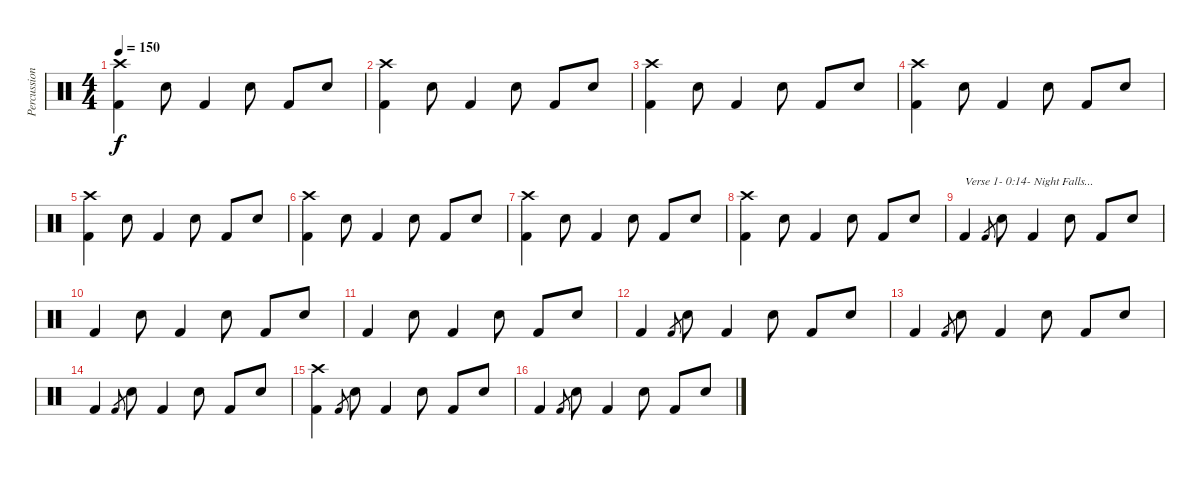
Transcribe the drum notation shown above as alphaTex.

\track ("Percussion" "Percussion") {instrument percussion}
\staff {score}
\articulation defaults
\ts (4 4)
\tempo 150
\clef neutral
\ks c
("Crash high (hit)" "Kick (hit) 2").4{dy f} "Snare (hit) 2".8 "Kick (hit) 2".4 "Snare (hit) 2".8 "Kick (hit) 2".8 "Snare (hit) 2".8 |
("Crash high (hit)" "Kick (hit) 2").4 "Snare (hit) 2".8 "Kick (hit) 2".4 "Snare (hit) 2".8 "Kick (hit) 2".8 "Snare (hit) 2".8 |
("Crash high (hit)" "Kick (hit) 2").4 "Snare (hit) 2".8 "Kick (hit) 2".4 "Snare (hit) 2".8 "Kick (hit) 2".8 "Snare (hit) 2".8 |
("Crash high (hit)" "Kick (hit) 2").4 "Snare (hit) 2".8 "Kick (hit) 2".4 "Snare (hit) 2".8 "Kick (hit) 2".8 "Snare (hit) 2".8 |
("Crash high (hit)" "Kick (hit) 2").4 "Snare (hit) 2".8 "Kick (hit) 2".4 "Snare (hit) 2".8 "Kick (hit) 2".8 "Snare (hit) 2".8 |
("Crash high (hit)" "Kick (hit) 2").4 "Snare (hit) 2".8 "Kick (hit) 2".4 "Snare (hit) 2".8 "Kick (hit) 2".8 "Snare (hit) 2".8 |
("Crash high (hit)" "Kick (hit) 2").4 "Snare (hit) 2".8 "Kick (hit) 2".4 "Snare (hit) 2".8 "Kick (hit) 2".8 "Snare (hit) 2".8 |
("Crash high (hit)" "Kick (hit) 2").4 "Snare (hit) 2".8 "Kick (hit) 2".4 "Snare (hit) 2".8 "Kick (hit) 2".8 "Snare (hit) 2".8 |
"Kick (hit) 2".4{txt "Verse 1- 0:14- Night Falls..."} "Kick (hit) 2".8{gr} "Snare (hit) 2".8 "Kick (hit) 2".4 "Snare (hit) 2".8 "Kick (hit) 2".8 "Snare (hit) 2".8 |
"Kick (hit) 2".4 "Snare (hit) 2".8 "Kick (hit) 2".4 "Snare (hit) 2".8 "Kick (hit) 2".8 "Snare (hit) 2".8 |
"Kick (hit) 2".4 "Snare (hit) 2".8 "Kick (hit) 2".4 "Snare (hit) 2".8 "Kick (hit) 2".8 "Snare (hit) 2".8 |
"Kick (hit) 2".4 "Kick (hit) 2".8{gr} "Snare (hit) 2".8 "Kick (hit) 2".4 "Snare (hit) 2".8 "Kick (hit) 2".8 "Snare (hit) 2".8 |
"Kick (hit) 2".4 "Kick (hit) 2".8{gr} "Snare (hit) 2".8 "Kick (hit) 2".4 "Snare (hit) 2".8 "Kick (hit) 2".8 "Snare (hit) 2".8 |
"Kick (hit) 2".4 "Kick (hit) 2".8{gr} "Snare (hit) 2".8 "Kick (hit) 2".4 "Snare (hit) 2".8 "Kick (hit) 2".8 "Snare (hit) 2".8 |
("Crash high (hit)" "Kick (hit) 2").4 "Kick (hit) 2".8{gr} "Snare (hit) 2".8 "Kick (hit) 2".4 "Snare (hit) 2".8 "Kick (hit) 2".8 "Snare (hit) 2".8 |
"Kick (hit) 2".4 "Kick (hit) 2".8{gr} "Snare (hit) 2".8 "Kick (hit) 2".4 "Snare (hit) 2".8 "Kick (hit) 2".8 "Snare (hit) 2".8
